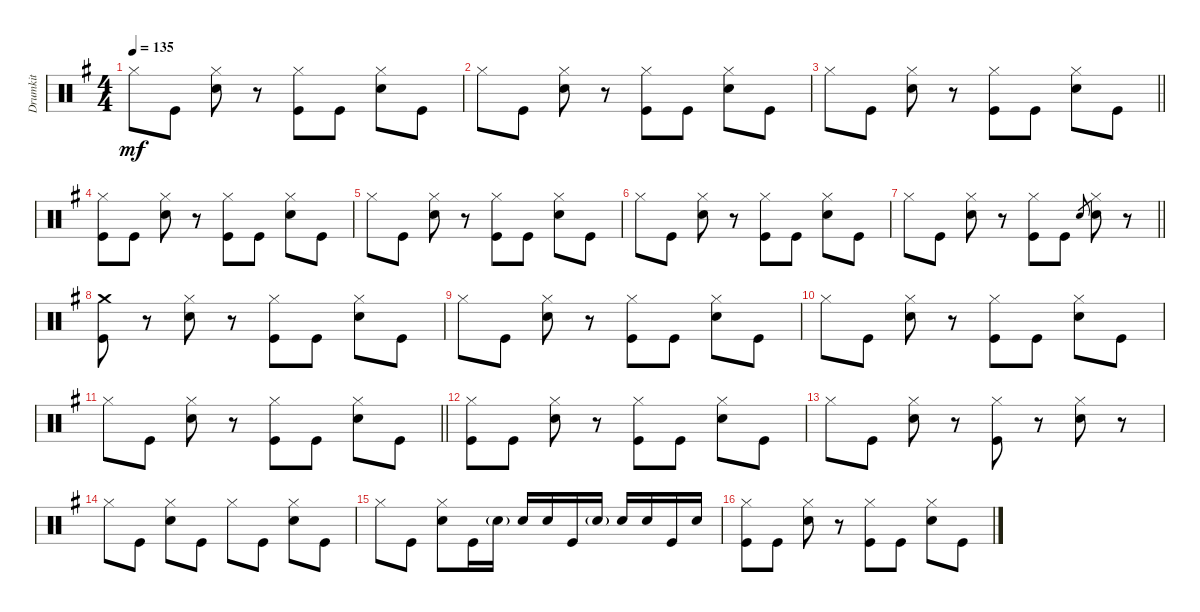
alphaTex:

\track ("Drumkit" "Drumkit") {instrument percussion}
\staff {score}
\articulation defaults
\ts (4 4)
\tempo 135
\clef neutral
\ks g "Hi-Hat (closed)".8{dy mf} "Kick (hit)".8
("Hi-Hat (closed)" "Snare (hit) 2").8 r.8 ("Hi-Hat (closed)" "Kick (hit)").8 "Kick (hit)".8 ("Hi-Hat (closed)" "Snare (hit) 2").8 "Kick (hit)".8 |
"Hi-Hat (closed)".8 "Kick (hit)".8 ("Hi-Hat (closed)" "Snare (hit) 2").8 r.8 ("Hi-Hat (closed)" "Kick (hit)").8 "Kick (hit)".8 ("Hi-Hat (closed)" "Snare (hit) 2").8 "Kick (hit)".8 |
\barLineRight lightlight "Hi-Hat (closed)".8 "Kick (hit)".8
("Hi-Hat (closed)" "Snare (hit) 2").8 r.8 ("Hi-Hat (closed)" "Kick (hit)").8 "Kick (hit)".8 ("Hi-Hat (closed)" "Snare (hit) 2").8 "Kick (hit)".8 |
("Kick (hit)" "Hi-Hat (closed)").8 "Kick (hit)".8 ("Hi-Hat (closed)" "Snare (hit) 2").8 r.8 ("Hi-Hat (closed)" "Kick (hit)").8 "Kick (hit)".8 ("Hi-Hat (closed)" "Snare (hit) 2").8 "Kick (hit)".8 |
"Hi-Hat (closed)".8 "Kick (hit)".8 ("Hi-Hat (closed)" "Snare (hit) 2").8 r.8 ("Hi-Hat (closed)" "Kick (hit)").8 "Kick (hit)".8 ("Hi-Hat (closed)" "Snare (hit) 2").8 "Kick (hit)".8 |
"Hi-Hat (closed)".8 "Kick (hit)".8 ("Hi-Hat (closed)" "Snare (hit) 2").8 r.8 ("Hi-Hat (closed)" "Kick (hit)").8 "Kick (hit)".8 ("Hi-Hat (closed)" "Snare (hit) 2").8 "Kick (hit)".8 |
\barLineRight lightlight "Hi-Hat (closed)".8 "Kick (hit)".8
("Hi-Hat (closed)" "Snare (hit) 2").8 r.8 ("Hi-Hat (closed)" "Kick (hit)").8 "Kick (hit)".8 "Snare (hit)".8{gr} ("Hi-Hat (closed)" "Snare (hit) 2").8 r.8 |
("Kick (hit)" "Crash medium (hit)").8 r.8 ("Hi-Hat (closed)" "Snare (hit) 2").8 r.8 ("Hi-Hat (closed)" "Kick (hit)").8 "Kick (hit)".8 ("Hi-Hat (closed)" "Snare (hit) 2").8 "Kick (hit)".8 |
"Hi-Hat (closed)".8 "Kick (hit)".8 ("Hi-Hat (closed)" "Snare (hit) 2").8 r.8 ("Hi-Hat (closed)" "Kick (hit)").8 "Kick (hit)".8 ("Hi-Hat (closed)" "Snare (hit) 2").8 "Kick (hit)".8 |
"Hi-Hat (closed)".8 "Kick (hit)".8 ("Hi-Hat (closed)" "Snare (hit) 2").8 r.8 ("Hi-Hat (closed)" "Kick (hit)").8 "Kick (hit)".8 ("Hi-Hat (closed)" "Snare (hit) 2").8 "Kick (hit)".8 |
\barLineRight lightlight "Hi-Hat (closed)".8 "Kick (hit)".8
("Hi-Hat (closed)" "Snare (hit) 2").8 r.8 ("Hi-Hat (closed)" "Kick (hit)").8 "Kick (hit)".8 ("Hi-Hat (closed)" "Snare (hit) 2").8 "Kick (hit)".8 |
("Kick (hit)" "Hi-Hat (closed)").8 "Kick (hit)".8 ("Hi-Hat (closed)" "Snare (hit) 2").8 r.8 ("Hi-Hat (closed)" "Kick (hit)").8 "Kick (hit)".8 ("Hi-Hat (closed)" "Snare (hit) 2").8 "Kick (hit)".8 |
"Hi-Hat (closed)".8 "Kick (hit)".8 ("Hi-Hat (closed)" "Snare (hit) 2").8 r.8 ("Hi-Hat (closed)" "Kick (hit)").8 r.8 ("Hi-Hat (closed)" "Snare (hit) 2").8 r.8 |
"Hi-Hat (closed)".8 "Kick (hit)".8 ("Hi-Hat (closed)" "Snare (hit) 2").8 "Kick (hit)".8 "Hi-Hat (closed)".8 "Kick (hit)".8 ("Hi-Hat (closed)" "Snare (hit) 2").8 "Kick (hit)".8 |
"Hi-Hat (closed)".8 "Kick (hit)".8 ("Hi-Hat (closed)" "Snare (hit) 2").8 "Kick (hit)".16 "Snare (hit) 2"{g}.16 "Snare (hit) 2".16 "Snare (hit) 2".16 "Kick (hit)".16 "Snare (hit) 2"{g}.16 "Snare (hit) 2".16 "Snare (hit) 2".16 "Kick (hit)".16 "Snare (hit) 2".16 |
("Kick (hit)" "Hi-Hat (closed)").8 "Kick (hit)".8 ("Hi-Hat (closed)" "Snare (hit) 2").8 r.8 ("Hi-Hat (closed)" "Kick (hit)").8 "Kick (hit)".8 ("Hi-Hat (closed)" "Snare (hit) 2").8 "Kick (hit)".8
